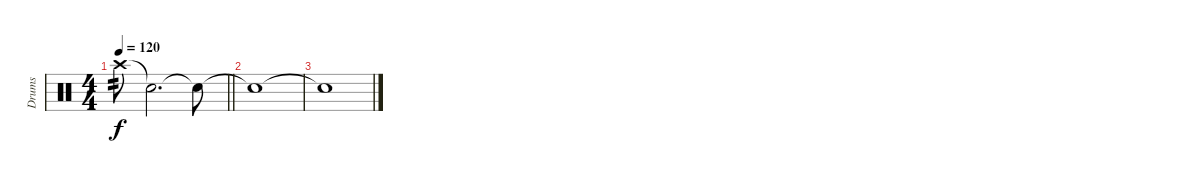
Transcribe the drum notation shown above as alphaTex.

\track ("Drums" "Drums") {instrument percussion}
\staff {score}
\articulation defaults
\ts (4 4)
\tempo 120
\clef neutral
\barLineRight lightlight
\ks c "Crash high (hit)".8{tp 2 dy f volume 5} "Snare (hit)"{t}.2{d volume 0} "Snare (hit)"{t}.8
|
"Snare (hit)"{t}.1 |
"Snare (hit)"{t}.1
